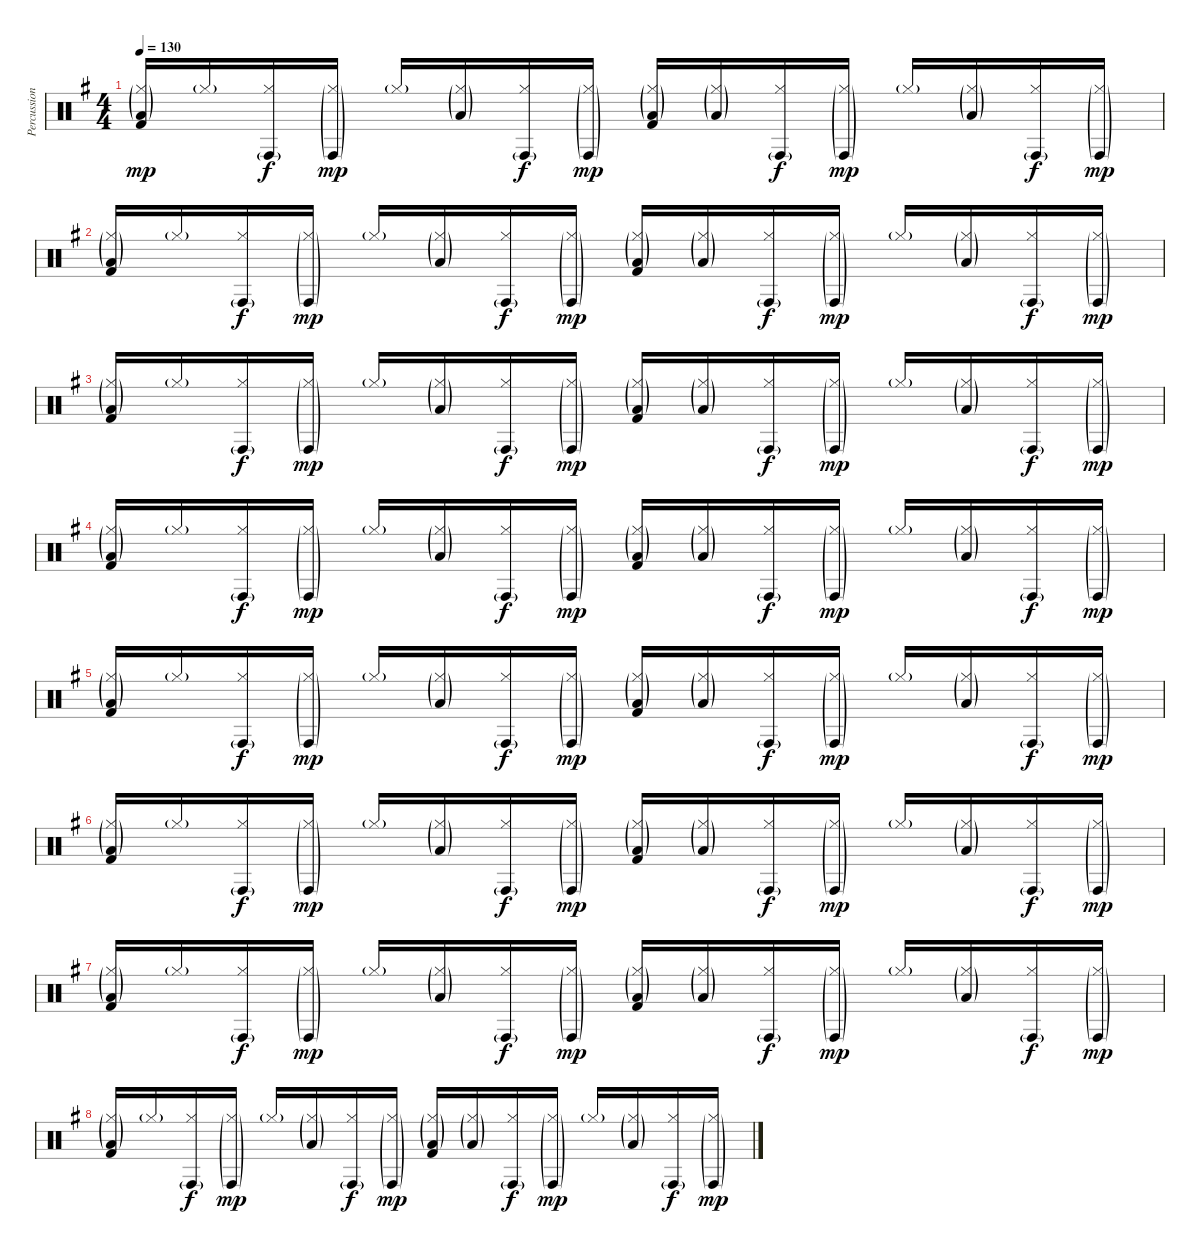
\track ("Percussion" "Percussion") {instrument percussion}
\staff {score}
\articulation defaults
\ts (4 4)
\tempo 130
\clef neutral
\ks eminor
("Hi-Hat (closed)"{g} "Low Tom (hit)"{g} "Kick (hit) 2").16{dy mp} "Hi-Hat (closed)"{g}.16 ("Hi-Hat (closed)" "Conga high (hit)"{g}).16{dy f} ("Hi-Hat (closed)"{g} "Conga high (hit)"{g}).16{dy mp} "Hi-Hat (closed)"{g}.16 ("Hi-Hat (closed)"{g} "Low Tom (hit)"{g}).16 ("Hi-Hat (closed)" "Conga high (hit)"{g}).16{dy f} ("Hi-Hat (closed)"{g} "Conga high (hit)"{g}).16{dy mp} ("Hi-Hat (closed)"{g} "Low Tom (hit)"{g} "Kick (hit) 2").16 ("Hi-Hat (closed)"{g} "Low Tom (hit)"{g}).16 ("Hi-Hat (closed)" "Conga high (hit)"{g}).16{dy f} ("Hi-Hat (closed)"{g} "Conga high (hit)"{g}).16{dy mp} "Hi-Hat (closed)"{g}.16 ("Hi-Hat (closed)"{g} "Low Tom (hit)"{g}).16 ("Hi-Hat (closed)" "Conga high (hit)"{g}).16{dy f} ("Hi-Hat (closed)"{g} "Conga high (hit)"{g}).16{dy mp} |
("Hi-Hat (closed)"{g} "Low Tom (hit)"{g} "Kick (hit) 2").16 "Hi-Hat (closed)"{g}.16 ("Hi-Hat (closed)" "Conga high (hit)"{g}).16{dy f} ("Hi-Hat (closed)"{g} "Conga high (hit)"{g}).16{dy mp} "Hi-Hat (closed)"{g}.16 ("Hi-Hat (closed)"{g} "Low Tom (hit)"{g}).16 ("Hi-Hat (closed)" "Conga high (hit)"{g}).16{dy f} ("Hi-Hat (closed)"{g} "Conga high (hit)"{g}).16{dy mp} ("Hi-Hat (closed)"{g} "Low Tom (hit)"{g} "Kick (hit) 2").16 ("Hi-Hat (closed)"{g} "Low Tom (hit)"{g}).16 ("Hi-Hat (closed)" "Conga high (hit)"{g}).16{dy f} ("Hi-Hat (closed)"{g} "Conga high (hit)"{g}).16{dy mp} "Hi-Hat (closed)"{g}.16 ("Hi-Hat (closed)"{g} "Low Tom (hit)"{g}).16 ("Hi-Hat (closed)" "Conga high (hit)"{g}).16{dy f} ("Hi-Hat (closed)"{g} "Conga high (hit)"{g}).16{dy mp} |
("Hi-Hat (closed)"{g} "Low Tom (hit)"{g} "Kick (hit) 2").16 "Hi-Hat (closed)"{g}.16 ("Hi-Hat (closed)" "Conga high (hit)"{g}).16{dy f} ("Hi-Hat (closed)"{g} "Conga high (hit)"{g}).16{dy mp} "Hi-Hat (closed)"{g}.16 ("Hi-Hat (closed)"{g} "Low Tom (hit)"{g}).16 ("Hi-Hat (closed)" "Conga high (hit)"{g}).16{dy f} ("Hi-Hat (closed)"{g} "Conga high (hit)"{g}).16{dy mp} ("Hi-Hat (closed)"{g} "Low Tom (hit)"{g} "Kick (hit) 2").16 ("Hi-Hat (closed)"{g} "Low Tom (hit)"{g}).16 ("Hi-Hat (closed)" "Conga high (hit)"{g}).16{dy f} ("Hi-Hat (closed)"{g} "Conga high (hit)"{g}).16{dy mp} "Hi-Hat (closed)"{g}.16 ("Hi-Hat (closed)"{g} "Low Tom (hit)"{g}).16 ("Hi-Hat (closed)" "Conga high (hit)"{g}).16{dy f} ("Hi-Hat (closed)"{g} "Conga high (hit)"{g}).16{dy mp} |
("Hi-Hat (closed)"{g} "Low Tom (hit)"{g} "Kick (hit) 2").16 "Hi-Hat (closed)"{g}.16 ("Hi-Hat (closed)" "Conga high (hit)"{g}).16{dy f} ("Hi-Hat (closed)"{g} "Conga high (hit)"{g}).16{dy mp} "Hi-Hat (closed)"{g}.16 ("Hi-Hat (closed)"{g} "Low Tom (hit)"{g}).16 ("Hi-Hat (closed)" "Conga high (hit)"{g}).16{dy f} ("Hi-Hat (closed)"{g} "Conga high (hit)"{g}).16{dy mp} ("Hi-Hat (closed)"{g} "Low Tom (hit)"{g} "Kick (hit) 2").16 ("Hi-Hat (closed)"{g} "Low Tom (hit)"{g}).16 ("Hi-Hat (closed)" "Conga high (hit)"{g}).16{dy f} ("Hi-Hat (closed)"{g} "Conga high (hit)"{g}).16{dy mp} "Hi-Hat (closed)"{g}.16 ("Hi-Hat (closed)"{g} "Low Tom (hit)"{g}).16 ("Hi-Hat (closed)" "Conga high (hit)"{g}).16{dy f} ("Hi-Hat (closed)"{g} "Conga high (hit)"{g}).16{dy mp} |
("Hi-Hat (closed)"{g} "Low Tom (hit)"{g} "Kick (hit) 2").16 "Hi-Hat (closed)"{g}.16 ("Hi-Hat (closed)" "Conga high (hit)"{g}).16{dy f} ("Hi-Hat (closed)"{g} "Conga high (hit)"{g}).16{dy mp} "Hi-Hat (closed)"{g}.16 ("Hi-Hat (closed)"{g} "Low Tom (hit)"{g}).16 ("Hi-Hat (closed)" "Conga high (hit)"{g}).16{dy f} ("Hi-Hat (closed)"{g} "Conga high (hit)"{g}).16{dy mp} ("Hi-Hat (closed)"{g} "Low Tom (hit)"{g} "Kick (hit) 2").16 ("Hi-Hat (closed)"{g} "Low Tom (hit)"{g}).16 ("Hi-Hat (closed)" "Conga high (hit)"{g}).16{dy f} ("Hi-Hat (closed)"{g} "Conga high (hit)"{g}).16{dy mp} "Hi-Hat (closed)"{g}.16 ("Hi-Hat (closed)"{g} "Low Tom (hit)"{g}).16 ("Hi-Hat (closed)" "Conga high (hit)"{g}).16{dy f} ("Hi-Hat (closed)"{g} "Conga high (hit)"{g}).16{dy mp} |
("Hi-Hat (closed)"{g} "Low Tom (hit)"{g} "Kick (hit) 2").16 "Hi-Hat (closed)"{g}.16 ("Hi-Hat (closed)" "Conga high (hit)"{g}).16{dy f} ("Hi-Hat (closed)"{g} "Conga high (hit)"{g}).16{dy mp} "Hi-Hat (closed)"{g}.16 ("Hi-Hat (closed)"{g} "Low Tom (hit)"{g}).16 ("Hi-Hat (closed)" "Conga high (hit)"{g}).16{dy f} ("Hi-Hat (closed)"{g} "Conga high (hit)"{g}).16{dy mp} ("Hi-Hat (closed)"{g} "Low Tom (hit)"{g} "Kick (hit) 2").16 ("Hi-Hat (closed)"{g} "Low Tom (hit)"{g}).16 ("Hi-Hat (closed)" "Conga high (hit)"{g}).16{dy f} ("Hi-Hat (closed)"{g} "Conga high (hit)"{g}).16{dy mp} "Hi-Hat (closed)"{g}.16 ("Hi-Hat (closed)"{g} "Low Tom (hit)"{g}).16 ("Hi-Hat (closed)" "Conga high (hit)"{g}).16{dy f} ("Hi-Hat (closed)"{g} "Conga high (hit)"{g}).16{dy mp} |
("Hi-Hat (closed)"{g} "Low Tom (hit)"{g} "Kick (hit) 2").16 "Hi-Hat (closed)"{g}.16 ("Hi-Hat (closed)" "Conga high (hit)"{g}).16{dy f} ("Hi-Hat (closed)"{g} "Conga high (hit)"{g}).16{dy mp} "Hi-Hat (closed)"{g}.16 ("Hi-Hat (closed)"{g} "Low Tom (hit)"{g}).16 ("Hi-Hat (closed)" "Conga high (hit)"{g}).16{dy f} ("Hi-Hat (closed)"{g} "Conga high (hit)"{g}).16{dy mp} ("Hi-Hat (closed)"{g} "Low Tom (hit)"{g} "Kick (hit) 2").16 ("Hi-Hat (closed)"{g} "Low Tom (hit)"{g}).16 ("Hi-Hat (closed)" "Conga high (hit)"{g}).16{dy f} ("Hi-Hat (closed)"{g} "Conga high (hit)"{g}).16{dy mp} "Hi-Hat (closed)"{g}.16 ("Hi-Hat (closed)"{g} "Low Tom (hit)"{g}).16 ("Hi-Hat (closed)" "Conga high (hit)"{g}).16{dy f} ("Hi-Hat (closed)"{g} "Conga high (hit)"{g}).16{dy mp} |
("Hi-Hat (closed)"{g} "Low Tom (hit)"{g} "Kick (hit) 2").16 "Hi-Hat (closed)"{g}.16 ("Hi-Hat (closed)" "Conga high (hit)"{g}).16{dy f} ("Hi-Hat (closed)"{g} "Conga high (hit)"{g}).16{dy mp} "Hi-Hat (closed)"{g}.16 ("Hi-Hat (closed)"{g} "Low Tom (hit)"{g}).16 ("Hi-Hat (closed)" "Conga high (hit)"{g}).16{dy f} ("Hi-Hat (closed)"{g} "Conga high (hit)"{g}).16{dy mp} ("Hi-Hat (closed)"{g} "Low Tom (hit)"{g} "Kick (hit) 2").16 ("Hi-Hat (closed)"{g} "Low Tom (hit)"{g}).16 ("Hi-Hat (closed)" "Conga high (hit)"{g}).16{dy f} ("Hi-Hat (closed)"{g} "Conga high (hit)"{g}).16{dy mp} "Hi-Hat (closed)"{g}.16 ("Hi-Hat (closed)"{g} "Low Tom (hit)"{g}).16 ("Hi-Hat (closed)" "Conga high (hit)"{g}).16{dy f} ("Hi-Hat (closed)"{g} "Conga high (hit)"{g}).16{dy mp}
